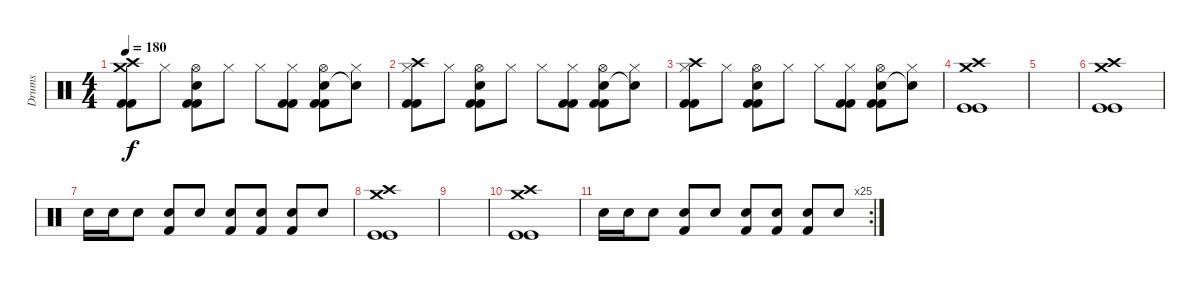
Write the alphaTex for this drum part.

\track ("Drums" "Drums") {instrument percussion}
\staff {score}
\articulation defaults
\ts (4 4)
\tempo 180
\clef neutral
\ks c
("Crash medium (hit)" "Crash high (hit)" "Kick (hit) 2" "Kick (hit) 2").8{dy f} "Hi-Hat (closed)".8 ("Hi-Hat (open)" "Electric Snare (hit)" "Kick (hit) 2" "Kick (hit) 2").8 "Hi-Hat (closed)".8 "Hi-Hat (closed)".8 ("Hi-Hat (closed)" "Kick (hit) 2" "Kick (hit) 2").8 ("Hi-Hat (open)" "Electric Snare (hit)" "Kick (hit) 2" "Kick (hit) 2").8 ("Hi-Hat (closed)" "Snare (hit)"{t}).8 |
("Hi-Hat (closed)" "Crash high (hit)" "Kick (hit) 2" "Kick (hit) 2").8 "Hi-Hat (closed)".8 ("Hi-Hat (open)" "Electric Snare (hit)" "Kick (hit) 2" "Kick (hit) 2").8 "Hi-Hat (closed)".8 "Hi-Hat (closed)".8 ("Hi-Hat (closed)" "Kick (hit) 2" "Kick (hit) 2").8 ("Hi-Hat (open)" "Electric Snare (hit)" "Kick (hit) 2" "Kick (hit) 2").8 ("Hi-Hat (closed)" "Snare (hit)"{t}).8 |
("Hi-Hat (closed)" "Crash high (hit)" "Kick (hit) 2" "Kick (hit) 2").8 "Hi-Hat (closed)".8 ("Hi-Hat (open)" "Electric Snare (hit)" "Kick (hit) 2" "Kick (hit) 2").8 "Hi-Hat (closed)".8 "Hi-Hat (closed)".8 ("Hi-Hat (closed)" "Kick (hit) 2" "Kick (hit) 2").8 ("Hi-Hat (open)" "Electric Snare (hit)" "Kick (hit) 2" "Kick (hit) 2").8 ("Hi-Hat (closed)" "Snare (hit)"{t}).8 |
("Crash medium (hit)" "Kick (hit)" "Kick (hit)" "Crash high (hit)").1 |
|
("Crash medium (hit)" "Kick (hit)" "Kick (hit)" "Crash high (hit)").1 |
"Electric Snare (hit)".16 "Electric Snare (hit)".16 "Electric Snare (hit)".8 ("Electric Snare (hit)" "Kick (hit) 2").8 "Electric Snare (hit)".8 ("Electric Snare (hit)" "Kick (hit) 2").8 ("Electric Snare (hit)" "Kick (hit) 2").8 ("Electric Snare (hit)" "Kick (hit) 2").8 "Electric Snare (hit)".8 |
("Crash medium (hit)" "Kick (hit)" "Kick (hit)" "Crash high (hit)").1 |
|
("Crash medium (hit)" "Kick (hit)" "Kick (hit)" "Crash high (hit)").1 |
\rc 25 "Electric Snare (hit)".16 "Electric Snare (hit)".16 "Electric Snare (hit)".8
("Electric Snare (hit)" "Kick (hit) 2").8 "Electric Snare (hit)".8 ("Electric Snare (hit)" "Kick (hit) 2").8 ("Electric Snare (hit)" "Kick (hit) 2").8 ("Electric Snare (hit)" "Kick (hit) 2").8 "Electric Snare (hit)".8
